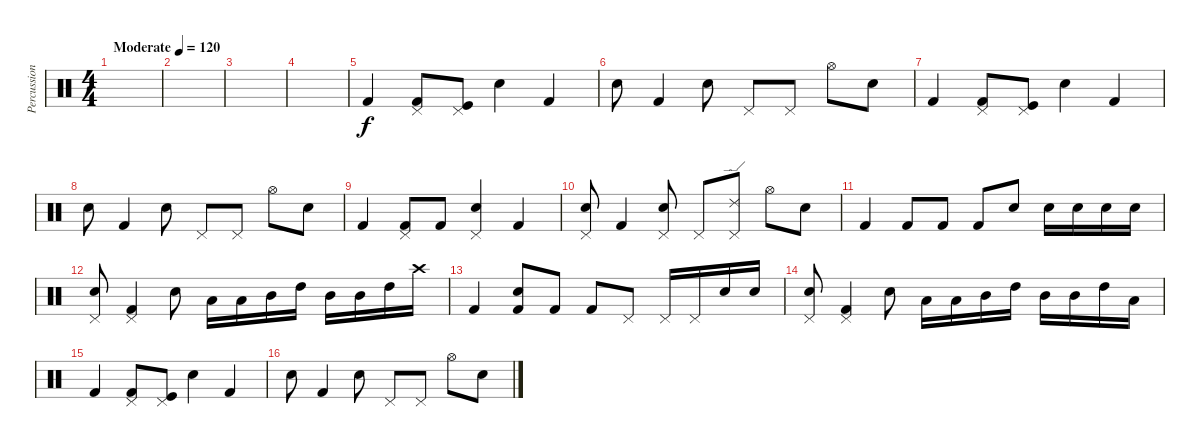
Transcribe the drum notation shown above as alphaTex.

\track ("Percussion" "Percussion") {instrument percussion}
\staff {score}
\articulation defaults
\ts (4 4)
\tempo (120 "Moderate")
\clef neutral
\ks c
|
|
|
|
"Kick (hit) 2".4 ("Kick (hit) 2" "Pedal Hi-Hat (hit)").8 ("Kick (hit)" "Pedal Hi-Hat (hit)").8 "Snare (hit) 2".4 "Kick (hit) 2".4 |
"Snare (hit) 2".8 "Kick (hit) 2".4 "Snare (hit) 2".8 "Pedal Hi-Hat (hit)".8 "Pedal Hi-Hat (hit)".8 "Hi-Hat (open)".8 "Snare (hit) 2".8 |
"Kick (hit) 2".4 ("Kick (hit) 2" "Pedal Hi-Hat (hit)").8 ("Kick (hit)" "Pedal Hi-Hat (hit)").8 "Snare (hit) 2".4 "Kick (hit) 2".4 |
"Snare (hit) 2".8 "Kick (hit) 2".4 "Snare (hit) 2".8 "Pedal Hi-Hat (hit)".8 "Pedal Hi-Hat (hit)".8 "Hi-Hat (open)".8 "Snare (hit) 2".8 |
"Kick (hit) 2".4 ("Kick (hit) 2" "Pedal Hi-Hat (hit)").8 "Kick (hit) 2".8 ("Pedal Hi-Hat (hit)" "Snare (hit) 2").4 "Kick (hit) 2".4 |
("Pedal Hi-Hat (hit)" "Snare (hit) 2").8 "Kick (hit) 2".4 ("Pedal Hi-Hat (hit)" "Snare (hit) 2").8 "Pedal Hi-Hat (hit)".8 ("Ride (edge) 2" "Pedal Hi-Hat (hit)").8 "Hi-Hat (open)".8 "Snare (hit) 2".8 |
"Kick (hit) 2".4 "Kick (hit) 2".8 "Kick (hit) 2".8 "Kick (hit) 2".8 "Snare (hit) 2".8 "Snare (hit) 2".16 "Snare (hit) 2".16 "Snare (hit) 2".16 "Snare (hit) 2".16 |
("Pedal Hi-Hat (hit)" "Snare (hit) 2").8 ("Pedal Hi-Hat (hit)" "Kick (hit) 2").4 "Snare (hit) 2".8 "Low Tom (hit)".16 "Low Tom (hit)".16 "Mid Tom (hit)".16 "High Tom (hit)".16 "Mid Tom (hit)".16 "Mid Tom (hit)".16 "High Tom (hit)".16 "Crash high (hit)".16 |
"Kick (hit) 2".4 ("Kick (hit) 2" "Snare (hit) 2").8 "Kick (hit) 2".8 "Kick (hit) 2".8 "Pedal Hi-Hat (hit)".8 "Pedal Hi-Hat (hit)".16 "Pedal Hi-Hat (hit)".16 "Snare (hit) 2".16 "Snare (hit) 2".16 |
("Pedal Hi-Hat (hit)" "Snare (hit) 2").8 ("Pedal Hi-Hat (hit)" "Kick (hit) 2").4 "Snare (hit) 2".8 "Low Tom (hit)".16 "Low Tom (hit)".16 "Mid Tom (hit)".16 "High Tom (hit)".16 "Mid Tom (hit)".16 "Mid Tom (hit)".16 "High Tom (hit)".16 "Low Tom (hit)".16 |
"Kick (hit) 2".4 ("Kick (hit) 2" "Pedal Hi-Hat (hit)").8 ("Kick (hit)" "Pedal Hi-Hat (hit)").8 "Snare (hit) 2".4 "Kick (hit) 2".4 |
"Snare (hit) 2".8 "Kick (hit) 2".4 "Snare (hit) 2".8 "Pedal Hi-Hat (hit)".8 "Pedal Hi-Hat (hit)".8 "Hi-Hat (open)".8 "Snare (hit) 2".8
